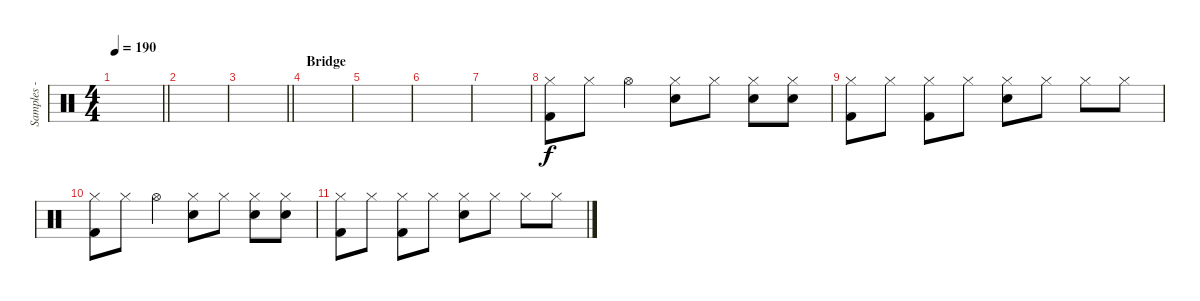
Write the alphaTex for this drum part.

\track ("Samples - Joe Hahn" "Samples - ") {instrument percussion}
\staff {score}
\articulation defaults
\ts (4 4)
\tempo 190
\clef neutral
\barLineRight lightlight
\ks c
|
|
\barLineRight lightlight
|
\section ("" "Bridge")
|
|
|
|
("Hi-Hat (closed)" "Kick (hit) 2").8 "Hi-Hat (closed)".8 "Hi-Hat (open)".4 ("Hi-Hat (closed)" "Snare (hit) 2").8 "Hi-Hat (closed)".8 ("Hi-Hat (closed)" "Snare (hit) 2").8 ("Hi-Hat (closed)" "Snare (hit) 2").8 |
("Hi-Hat (closed)" "Kick (hit) 2").8 "Hi-Hat (closed)".8 ("Hi-Hat (closed)" "Kick (hit) 2").8 "Hi-Hat (closed)".8 ("Hi-Hat (closed)" "Snare (hit) 2").8 "Hi-Hat (closed)".8 "Hi-Hat (closed)".8 "Hi-Hat (closed)".8 |
("Hi-Hat (closed)" "Kick (hit) 2").8 "Hi-Hat (closed)".8 "Hi-Hat (open)".4 ("Hi-Hat (closed)" "Snare (hit) 2").8 "Hi-Hat (closed)".8 ("Hi-Hat (closed)" "Snare (hit) 2").8 ("Hi-Hat (closed)" "Snare (hit) 2").8 |
("Hi-Hat (closed)" "Kick (hit) 2").8 "Hi-Hat (closed)".8 ("Hi-Hat (closed)" "Kick (hit) 2").8 "Hi-Hat (closed)".8 ("Hi-Hat (closed)" "Snare (hit) 2").8 "Hi-Hat (closed)".8 "Hi-Hat (closed)".8 "Hi-Hat (closed)".8
